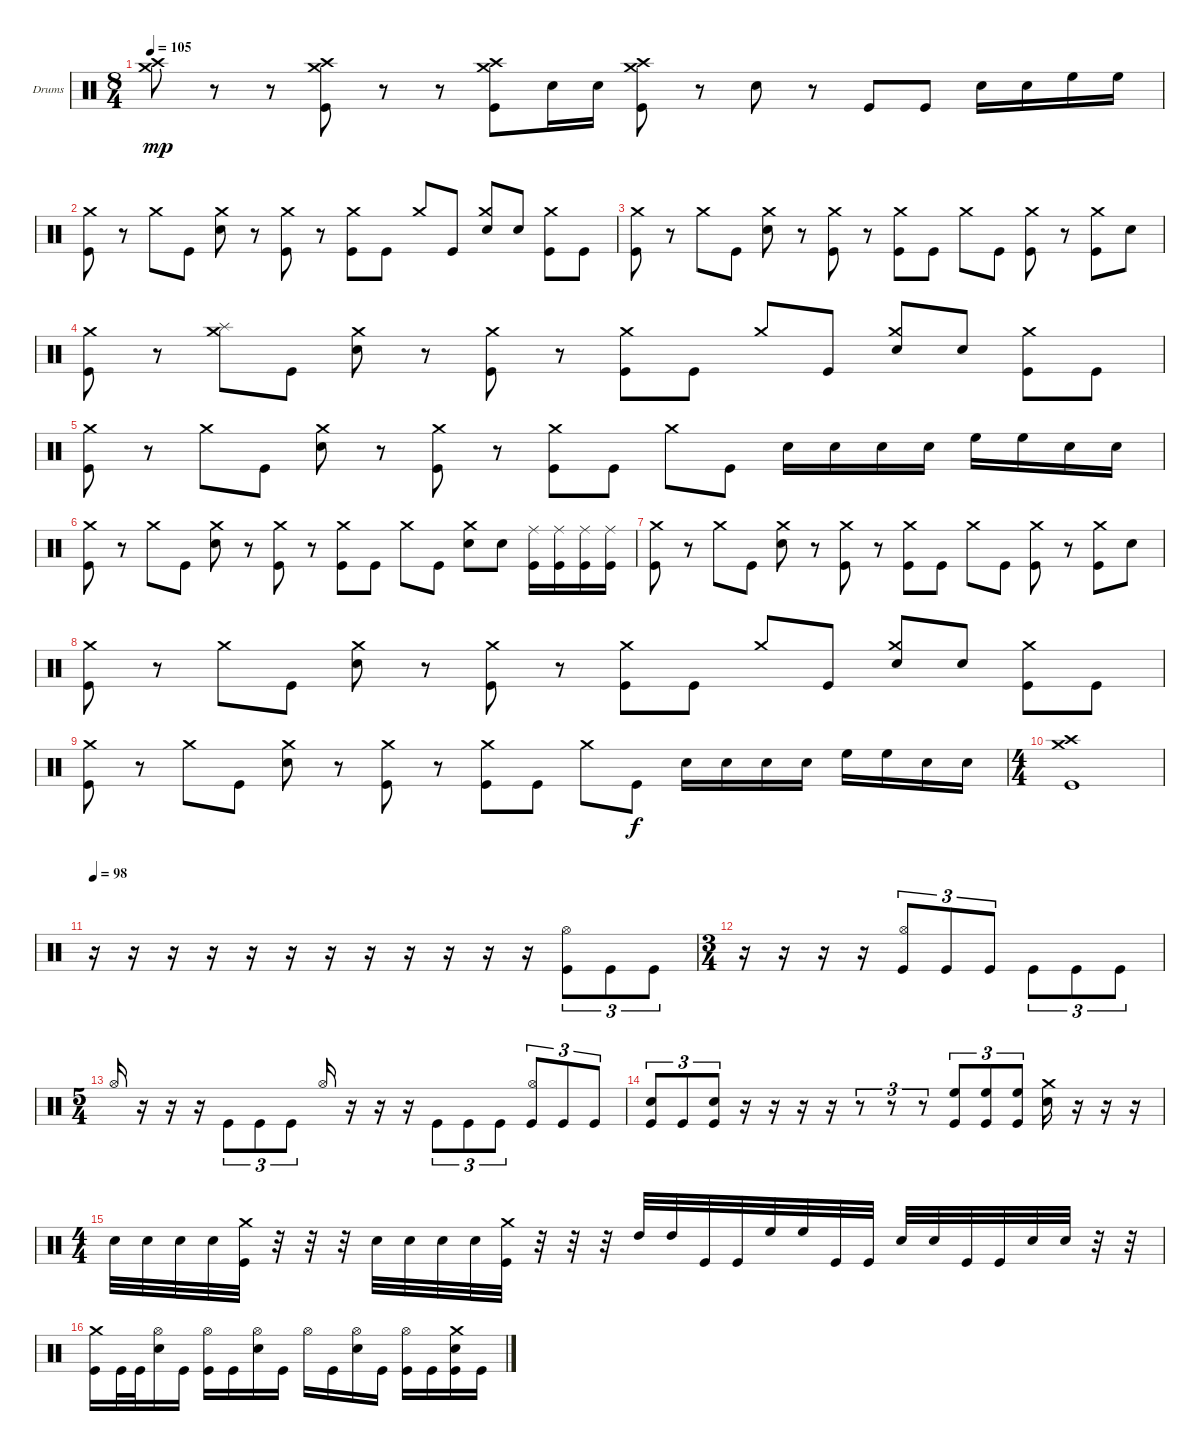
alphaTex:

\defaultSystemsLayout 4
\bracketExtendMode groupsimilarinstruments
\firstSystemTrackNameOrientation horizontal
\otherSystemsTrackNameOrientation horizontal
\track ("Drumkit" "Drums") {instrument percussion}
\staff {score}
\articulation defaults
\ts (8 4)
\tempo 105
\clef neutral
\ks c
("Crash medium (hit)" "Crash high (hit)").8{dy mp} r.8 r.8 ("Kick (hit)" "Crash medium (hit)" "Crash high (hit)").8 r.8 r.8 ("Crash medium (hit)" "Kick (hit)" "Crash high (hit)").8 "Snare (hit) 2".16 "Snare (hit) 2".16 ("Kick (hit)" "Crash medium (hit)" "Crash high (hit)").8 r.8 "Snare (hit) 2".8 r.8 "Kick (hit)".8 "Kick (hit)".8 "Snare (hit) 2".16 "Snare (hit) 2".16 "High Floor Tom (hit)".16 "High Floor Tom (hit)".16 |
("Kick (hit)" "Crash medium (hit)").8 r.8 "Crash medium (hit)".8 "Kick (hit)".8 ("Snare (hit) 2" "Crash medium (hit)").8 r.8 ("Crash medium (hit)" "Kick (hit)").8 r.8 ("Kick (hit)" "Crash medium (hit)").8 "Kick (hit)".8 "Crash medium (hit)".8 "Kick (hit)".8 ("Snare (hit) 2" "Crash medium (hit)").8{beam invert} "Snare (hit) 2".8 ("Kick (hit)" "Crash medium (hit)").8 "Kick (hit)".8 |
("Kick (hit)" "Crash medium (hit)").8 r.8 "Crash medium (hit)".8 "Kick (hit)".8 ("Snare (hit) 2" "Crash medium (hit)").8 r.8 ("Crash medium (hit)" "Kick (hit)").8 r.8 ("Kick (hit)" "Crash medium (hit)").8 "Kick (hit)".8 "Crash medium (hit)".8 "Kick (hit)".8 ("Kick (hit)" "Crash medium (hit)").8 r.8 ("Crash medium (hit)" "Kick (hit)").8 "Snare (hit) 2".8 |
("Kick (hit)" "Crash medium (hit)").8 r.8 ("Crash medium (hit)" "Splash (hit)").8 "Kick (hit)".8 ("Snare (hit) 2" "Crash medium (hit)").8 r.8 ("Crash medium (hit)" "Kick (hit)").8 r.8 ("Kick (hit)" "Crash medium (hit)").8 "Kick (hit)".8 "Crash medium (hit)".8 "Kick (hit)".8 ("Snare (hit) 2" "Crash medium (hit)").8{beam invert} "Snare (hit) 2".8 ("Kick (hit)" "Crash medium (hit)").8 "Kick (hit)".8 |
("Kick (hit)" "Crash medium (hit)").8 r.8 "Crash medium (hit)".8 "Kick (hit)".8 ("Snare (hit) 2" "Crash medium (hit)").8 r.8 ("Crash medium (hit)" "Kick (hit)").8 r.8 ("Kick (hit)" "Crash medium (hit)").8 "Kick (hit)".8 "Crash medium (hit)".8 "Kick (hit)".8 "Snare (hit) 2".16 "Snare (hit) 2".16 "Snare (hit) 2".16 "Snare (hit) 2".16 "High Floor Tom (hit)".16 "High Floor Tom (hit)".16 "Snare (hit) 2".16 "Snare (hit) 2".16 |
("Kick (hit)" "Crash medium (hit)").8 r.8 "Crash medium (hit)".8 "Kick (hit)".8 ("Snare (hit) 2" "Crash medium (hit)").8 r.8 ("Crash medium (hit)" "Kick (hit)").8 r.8 ("Kick (hit)" "Crash medium (hit)").8 "Kick (hit)".8 "Crash medium (hit)".8 "Kick (hit)".8 ("Snare (hit) 2" "Crash medium (hit)").8 "Snare (hit) 2".8 ("Kick (hit)" "Ride (middle)").16 ("Kick (hit)" "Ride (middle)").16 ("Kick (hit)" "Ride (middle)").16 ("Kick (hit)" "Ride (middle)").16 |
("Crash medium (hit)" "Kick (hit)").8 r.8 "Crash medium (hit)".8 "Kick (hit)".8 ("Snare (hit) 2" "Crash medium (hit)").8 r.8 ("Crash medium (hit)" "Kick (hit)").8 r.8 ("Kick (hit)" "Crash medium (hit)").8 "Kick (hit)".8 "Crash medium (hit)".8 "Kick (hit)".8 ("Crash medium (hit)" "Kick (hit)").8 r.8 ("Crash medium (hit)" "Kick (hit)").8 "Snare (hit) 2".8 |
("Kick (hit)" "Crash medium (hit)").8 r.8 "Crash medium (hit)".8 "Kick (hit)".8 ("Snare (hit) 2" "Crash medium (hit)").8 r.8 ("Crash medium (hit)" "Kick (hit)").8 r.8 ("Kick (hit)" "Crash medium (hit)").8 "Kick (hit)".8 "Crash medium (hit)".8 "Kick (hit)".8 ("Snare (hit) 2" "Crash medium (hit)").8{beam invert} "Snare (hit) 2".8 ("Kick (hit)" "Crash medium (hit)").8 "Kick (hit)".8 |
("Kick (hit)" "Crash medium (hit)").8 r.8 "Crash medium (hit)".8 "Kick (hit)".8 ("Snare (hit) 2" "Crash medium (hit)").8 r.8 ("Crash medium (hit)" "Kick (hit)").8 r.8 ("Kick (hit)" "Crash medium (hit)").8 "Kick (hit)".8 "Crash medium (hit)".8 "Kick (hit)".8{dy f} "Snare (hit) 2".16 "Snare (hit) 2".16 "Snare (hit) 2".16 "Snare (hit) 2".16 "High Floor Tom (hit)".16 "High Floor Tom (hit)".16 "Snare (hit) 2".16 "Snare (hit) 2".16 |
\ts (4 4)
("Kick (hit)" "Crash medium (hit)" "Crash high (hit)").1 |
\tempo 98
r.16 r.16 r.16 r.16 r.16 r.16 r.16 r.16 r.16 r.16 r.16 r.16 ("Kick (hit)" "Hi-Hat (open)").8{tu (3 2)} "Kick (hit)".8{tu (3 2)} "Kick (hit)".8{tu (3 2)} |
\ts (3 4)
r.16 r.16 r.16 r.16 ("Hi-Hat (open)" "Kick (hit)").8{tu (3 2) beam invert} "Kick (hit)".8{tu (3 2)} "Kick (hit)".8{tu (3 2)} "Kick (hit)".8{tu (3 2) beam invert} "Kick (hit)".8{tu (3 2)} "Kick (hit)".8{tu (3 2)} |
\ts (5 4)
"Hi-Hat (open)".16 r.16 r.16 r.16 "Kick (hit)".8{tu (3 2) beam invert} "Kick (hit)".8{tu (3 2)} "Kick (hit)".8{tu (3 2)} "Hi-Hat (open)".16 r.16 r.16 r.16 "Kick (hit)".8{tu (3 2) beam invert} "Kick (hit)".8{tu (3 2)} "Kick (hit)".8{tu (3 2)} ("Kick (hit)" "Hi-Hat (open)").8{tu (3 2) beam invert} "Kick (hit)".8{tu (3 2)} "Kick (hit)".8{tu (3 2)} |
("Snare (hit) 2" "Kick (hit)").8{tu (3 2)} "Kick (hit)".8{tu (3 2)} ("Kick (hit)" "Snare (hit) 2").8{tu (3 2)} r.16 r.16 r.16 r.16 r.8{tu (3 2)} r.8{tu (3 2)} r.8{tu (3 2)} ("High Floor Tom (hit)" "Kick (hit)").8{tu (3 2)} ("High Floor Tom (hit)" "Kick (hit)").8{tu (3 2)} ("High Floor Tom (hit)" "Kick (hit)").8{tu (3 2)} ("Snare (hit) 2" "Crash medium (hit)").16 r.16 r.16 r.16 |
\ts (4 4)
"Snare (hit) 2".32 "Snare (hit) 2".32 "Snare (hit) 2".32 "Snare (hit) 2".32 ("Kick (hit)" "Crash medium (hit)").32 r.32 r.32 r.32 "Snare (hit) 2".32 "Snare (hit) 2".32 "Snare (hit) 2".32 "Snare (hit) 2".32 ("Kick (hit)" "Crash medium (hit)").32 r.32 r.32 r.32 "High Tom (hit)".32 "High Tom (hit)".32 "Kick (hit)".32 "Kick (hit)".32 "High Floor Tom (hit)".32 "High Floor Tom (hit)".32 "Kick (hit)".32 "Kick (hit)".32 "Snare (hit) 2".32 "Snare (hit) 2".32 "Kick (hit)".32 "Kick (hit)".32 "Snare (hit) 2".32 "Snare (hit) 2".32 r.32 r.32 |
("Kick (hit)" "Crash medium (hit)").16 "Kick (hit)".32 "Kick (hit)".32 ("Snare (hit) 2" "Hi-Hat (open)").16 "Kick (hit)".16 ("Hi-Hat (open)" "Kick (hit)").16 "Kick (hit)".16 ("Snare (hit) 2" "Hi-Hat (open)").16 "Kick (hit)".16 "Hi-Hat (open)".16 "Kick (hit)".16 ("Snare (hit) 2" "Hi-Hat (open)").16 "Kick (hit)".16 ("Kick (hit)" "Hi-Hat (open)").16 "Kick (hit)".16 ("Kick (hit)" "Snare (hit) 2" "Crash medium (hit)").16 "Kick (hit)".16
